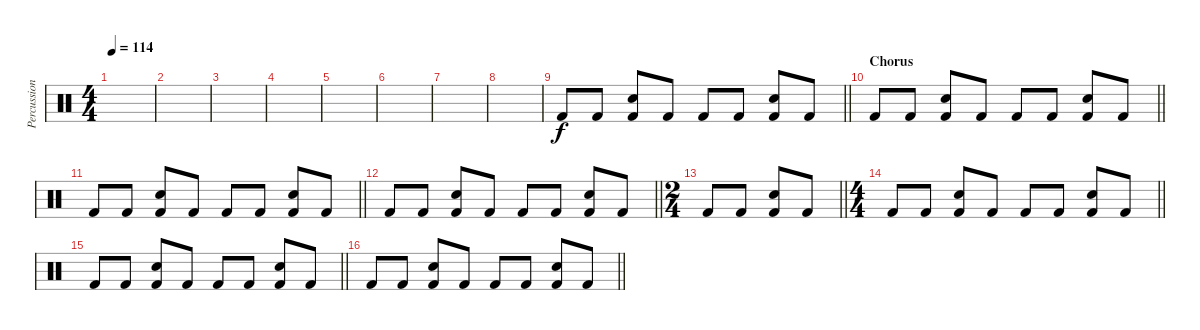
\track ("Percussion" "Percussion") {instrument percussion}
\staff {score}
\articulation defaults
\ts (4 4)
\tempo 114
\clef neutral
\ks c
|
|
|
|
|
|
|
|
\barLineRight lightlight "Kick (hit) 2".8{volume 12} "Kick (hit) 2".8
("Snare (hit) 2" "Kick (hit) 2").8 "Kick (hit) 2".8 "Kick (hit) 2".8 "Kick (hit) 2".8 ("Snare (hit) 2" "Kick (hit) 2").8 "Kick (hit) 2".8 |
\section ("" "Chorus")
\barLineRight lightlight "Kick (hit) 2".8 "Kick (hit) 2".8
("Snare (hit) 2" "Kick (hit) 2").8 "Kick (hit) 2".8 "Kick (hit) 2".8 "Kick (hit) 2".8 ("Snare (hit) 2" "Kick (hit) 2").8 "Kick (hit) 2".8 |
\barLineRight lightlight "Kick (hit) 2".8 "Kick (hit) 2".8
("Snare (hit) 2" "Kick (hit) 2").8 "Kick (hit) 2".8 "Kick (hit) 2".8 "Kick (hit) 2".8 ("Snare (hit) 2" "Kick (hit) 2").8 "Kick (hit) 2".8 |
\barLineRight lightlight "Kick (hit) 2".8 "Kick (hit) 2".8
("Snare (hit) 2" "Kick (hit) 2").8 "Kick (hit) 2".8 "Kick (hit) 2".8 "Kick (hit) 2".8 ("Snare (hit) 2" "Kick (hit) 2").8 "Kick (hit) 2".8 |
\ts (2 4)
\barLineRight lightlight "Kick (hit) 2".8 "Kick (hit) 2".8
("Snare (hit) 2" "Kick (hit) 2").8 "Kick (hit) 2".8 |
\ts (4 4)
\barLineRight lightlight "Kick (hit) 2".8 "Kick (hit) 2".8
("Snare (hit) 2" "Kick (hit) 2").8 "Kick (hit) 2".8 "Kick (hit) 2".8 "Kick (hit) 2".8 ("Snare (hit) 2" "Kick (hit) 2").8 "Kick (hit) 2".8 |
\barLineRight lightlight "Kick (hit) 2".8 "Kick (hit) 2".8
("Snare (hit) 2" "Kick (hit) 2").8 "Kick (hit) 2".8 "Kick (hit) 2".8 "Kick (hit) 2".8 ("Snare (hit) 2" "Kick (hit) 2").8 "Kick (hit) 2".8 |
\barLineRight lightlight "Kick (hit) 2".8 "Kick (hit) 2".8
("Snare (hit) 2" "Kick (hit) 2").8 "Kick (hit) 2".8 "Kick (hit) 2".8 "Kick (hit) 2".8 ("Snare (hit) 2" "Kick (hit) 2").8 "Kick (hit) 2".8
